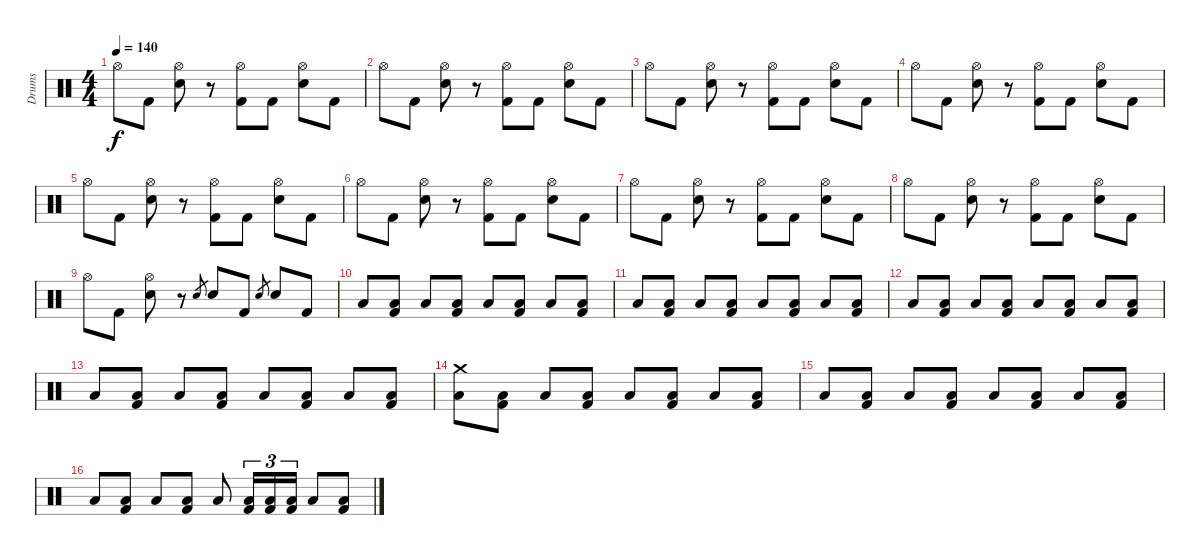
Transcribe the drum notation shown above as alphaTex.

\track ("Drums" "Drums") {instrument percussion}
\staff {score}
\articulation defaults
\ts (4 4)
\tempo 140
\clef neutral
\ks c "Hi-Hat (open)".8{dy f} "Kick (hit) 2".8
("Hi-Hat (open)" "Electric Snare (hit)").8 r.8 ("Hi-Hat (open)" "Kick (hit) 2").8 "Kick (hit) 2".8 ("Hi-Hat (open)" "Electric Snare (hit)").8 "Kick (hit) 2".8 |
"Hi-Hat (open)".8 "Kick (hit) 2".8 ("Hi-Hat (open)" "Electric Snare (hit)").8 r.8 ("Hi-Hat (open)" "Kick (hit) 2").8 "Kick (hit) 2".8 ("Hi-Hat (open)" "Electric Snare (hit)").8 "Kick (hit) 2".8 |
"Hi-Hat (open)".8 "Kick (hit) 2".8 ("Hi-Hat (open)" "Electric Snare (hit)").8 r.8 ("Hi-Hat (open)" "Kick (hit) 2").8 "Kick (hit) 2".8 ("Hi-Hat (open)" "Electric Snare (hit)").8 "Kick (hit) 2".8 |
"Hi-Hat (open)".8 "Kick (hit) 2".8 ("Hi-Hat (open)" "Electric Snare (hit)").8 r.8 ("Hi-Hat (open)" "Kick (hit) 2").8 "Kick (hit) 2".8 ("Hi-Hat (open)" "Electric Snare (hit)").8 "Kick (hit) 2".8 |
"Hi-Hat (open)".8 "Kick (hit) 2".8 ("Hi-Hat (open)" "Electric Snare (hit)").8 r.8 ("Hi-Hat (open)" "Kick (hit) 2").8 "Kick (hit) 2".8 ("Hi-Hat (open)" "Electric Snare (hit)").8 "Kick (hit) 2".8 |
"Hi-Hat (open)".8 "Kick (hit) 2".8 ("Hi-Hat (open)" "Electric Snare (hit)").8 r.8 ("Hi-Hat (open)" "Kick (hit) 2").8 "Kick (hit) 2".8 ("Hi-Hat (open)" "Electric Snare (hit)").8 "Kick (hit) 2".8 |
"Hi-Hat (open)".8 "Kick (hit) 2".8 ("Hi-Hat (open)" "Electric Snare (hit)").8 r.8 ("Hi-Hat (open)" "Kick (hit) 2").8 "Kick (hit) 2".8 ("Hi-Hat (open)" "Electric Snare (hit)").8 "Kick (hit) 2".8 |
"Hi-Hat (open)".8 "Kick (hit) 2".8 ("Hi-Hat (open)" "Electric Snare (hit)").8 r.8 ("Hi-Hat (open)" "Kick (hit) 2").8 "Kick (hit) 2".8 ("Hi-Hat (open)" "Electric Snare (hit)").8 "Kick (hit) 2".8 |
"Hi-Hat (open)".8 "Kick (hit) 2".8 ("Hi-Hat (open)" "Electric Snare (hit)").8 r.8 "Electric Snare (hit)".8{gr} "Electric Snare (hit)".8 "Kick (hit) 2".8 "Electric Snare (hit)".8{gr} "Electric Snare (hit)".8 "Kick (hit) 2".8 |
"Low Tom (hit)".8 ("Low Floor Tom (hit)" "Kick (hit) 2").8 "Low Tom (hit)".8 ("Low Floor Tom (hit)" "Kick (hit) 2").8 "Low Tom (hit)".8 ("Low Floor Tom (hit)" "Kick (hit) 2").8 "Low Tom (hit)".8 ("Low Floor Tom (hit)" "Kick (hit) 2").8 |
"Low Tom (hit)".8 ("Low Floor Tom (hit)" "Kick (hit) 2").8 "Low Tom (hit)".8 ("Low Floor Tom (hit)" "Kick (hit) 2").8 "Low Tom (hit)".8 ("Low Floor Tom (hit)" "Kick (hit) 2").8 "Low Tom (hit)".8 ("Low Floor Tom (hit)" "Kick (hit) 2").8 |
"Low Tom (hit)".8 ("Low Floor Tom (hit)" "Kick (hit) 2").8 "Low Tom (hit)".8 ("Low Floor Tom (hit)" "Kick (hit) 2").8 "Low Tom (hit)".8 ("Low Floor Tom (hit)" "Kick (hit) 2").8 "Low Tom (hit)".8 ("Low Floor Tom (hit)" "Kick (hit) 2").8 |
"Low Tom (hit)".8 ("Low Floor Tom (hit)" "Kick (hit) 2").8 "Low Tom (hit)".8 ("Low Floor Tom (hit)" "Kick (hit) 2").8 "Low Tom (hit)".8 ("Low Floor Tom (hit)" "Kick (hit) 2").8 "Low Tom (hit)".8 ("Low Floor Tom (hit)" "Kick (hit) 2").8 |
("Crash medium (hit)" "Low Tom (hit)").8 ("Low Floor Tom (hit)" "Kick (hit) 2").8 "Low Tom (hit)".8 ("Low Floor Tom (hit)" "Kick (hit) 2").8 "Low Tom (hit)".8 ("Low Floor Tom (hit)" "Kick (hit) 2").8 "Low Tom (hit)".8 ("Low Floor Tom (hit)" "Kick (hit) 2").8 |
"Low Tom (hit)".8 ("Low Floor Tom (hit)" "Kick (hit) 2").8 "Low Tom (hit)".8 ("Low Floor Tom (hit)" "Kick (hit) 2").8 "Low Tom (hit)".8 ("Low Floor Tom (hit)" "Kick (hit) 2").8 "Low Tom (hit)".8 ("Low Floor Tom (hit)" "Kick (hit) 2").8 |
"Low Tom (hit)".8 ("Low Floor Tom (hit)" "Kick (hit) 2").8 "Low Tom (hit)".8 ("Low Floor Tom (hit)" "Kick (hit) 2").8 "Low Tom (hit)".8 ("Low Floor Tom (hit)" "Kick (hit) 2").16{tu (3 2)} ("Low Floor Tom (hit)" "Kick (hit) 2").16{tu (3 2)} ("Low Floor Tom (hit)" "Kick (hit) 2").16{tu (3 2)} "Low Tom (hit)".8 ("Low Floor Tom (hit)" "Kick (hit) 2").8
